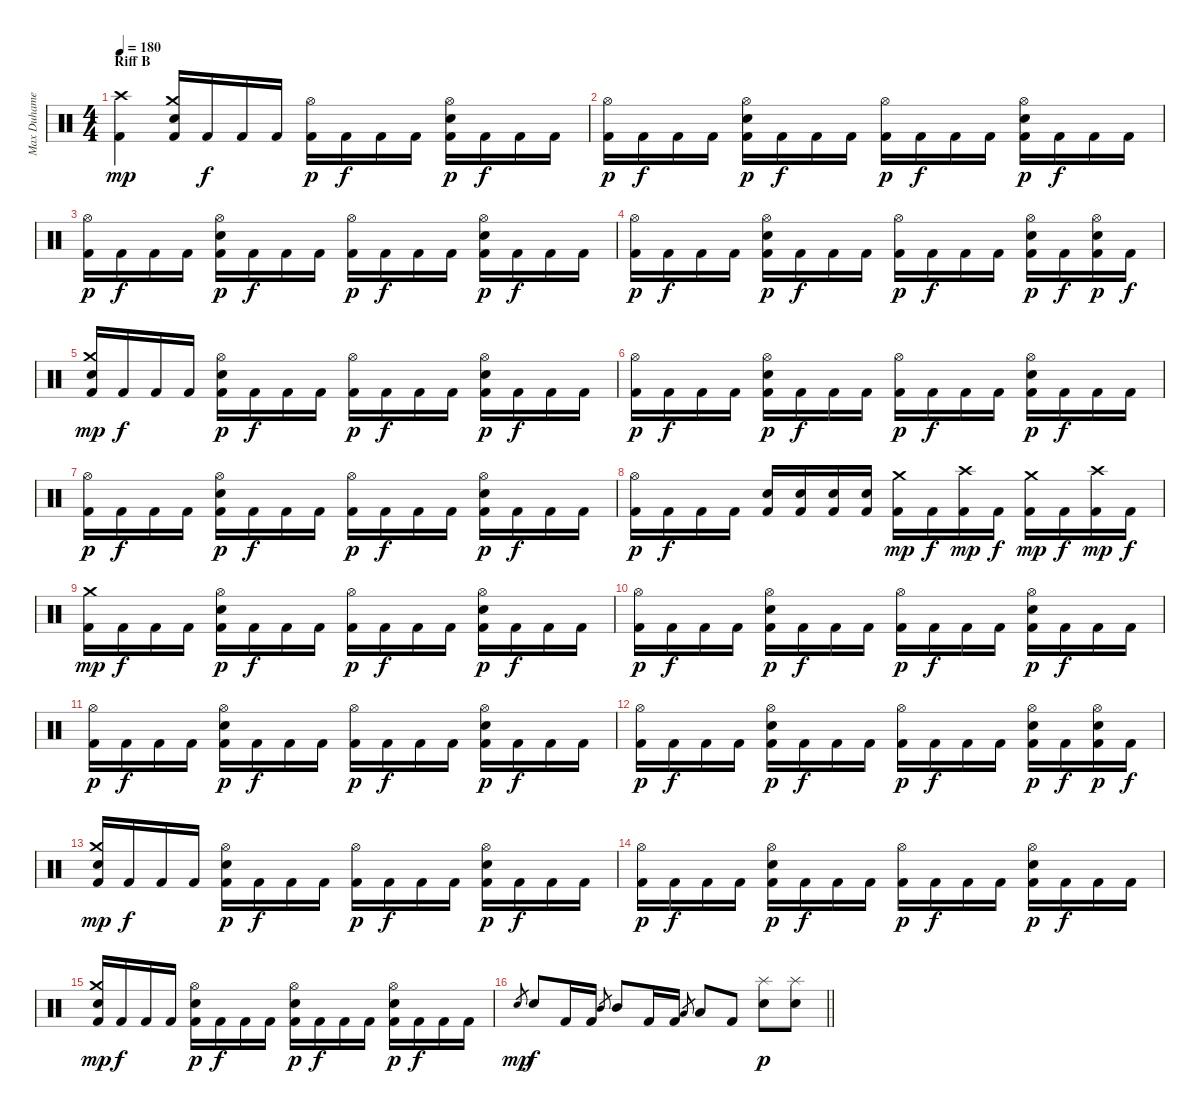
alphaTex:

\track ("Max Duhamel" "Max Duhame") {instrument percussion}
\staff {score}
\articulation defaults
\ts (4 4)
\section ("" "Riff B")
\tempo 180
\clef neutral
\ks c
("Crash high (hit)" "Kick (hit) 2").4{dy mp} ("Crash medium (hit)" "Electric Snare (hit)" "Kick (hit) 2").16 "Kick (hit) 2".16{dy f} "Kick (hit) 2".16 "Kick (hit) 2".16 ("Hi-Hat (open)" "Kick (hit) 2").16{dy p} "Kick (hit) 2".16{dy f} "Kick (hit) 2".16 "Kick (hit) 2".16 ("Hi-Hat (open)" "Electric Snare (hit)" "Kick (hit) 2").16{dy p} "Kick (hit) 2".16{dy f} "Kick (hit) 2".16 "Kick (hit) 2".16 |
("Hi-Hat (open)" "Kick (hit) 2").16{dy p} "Kick (hit) 2".16{dy f} "Kick (hit) 2".16 "Kick (hit) 2".16 ("Hi-Hat (open)" "Electric Snare (hit)" "Kick (hit) 2").16{dy p} "Kick (hit) 2".16{dy f} "Kick (hit) 2".16 "Kick (hit) 2".16 ("Hi-Hat (open)" "Kick (hit) 2").16{dy p} "Kick (hit) 2".16{dy f} "Kick (hit) 2".16 "Kick (hit) 2".16 ("Hi-Hat (open)" "Electric Snare (hit)" "Kick (hit) 2").16{dy p} "Kick (hit) 2".16{dy f} "Kick (hit) 2".16 "Kick (hit) 2".16 |
("Hi-Hat (open)" "Kick (hit) 2").16{dy p} "Kick (hit) 2".16{dy f} "Kick (hit) 2".16 "Kick (hit) 2".16 ("Hi-Hat (open)" "Electric Snare (hit)" "Kick (hit) 2").16{dy p} "Kick (hit) 2".16{dy f} "Kick (hit) 2".16 "Kick (hit) 2".16 ("Hi-Hat (open)" "Kick (hit) 2").16{dy p} "Kick (hit) 2".16{dy f} "Kick (hit) 2".16 "Kick (hit) 2".16 ("Hi-Hat (open)" "Electric Snare (hit)" "Kick (hit) 2").16{dy p} "Kick (hit) 2".16{dy f} "Kick (hit) 2".16 "Kick (hit) 2".16 |
("Hi-Hat (open)" "Kick (hit) 2").16{dy p} "Kick (hit) 2".16{dy f} "Kick (hit) 2".16 "Kick (hit) 2".16 ("Hi-Hat (open)" "Electric Snare (hit)" "Kick (hit) 2").16{dy p} "Kick (hit) 2".16{dy f} "Kick (hit) 2".16 "Kick (hit) 2".16 ("Hi-Hat (open)" "Kick (hit) 2").16{dy p} "Kick (hit) 2".16{dy f} "Kick (hit) 2".16 "Kick (hit) 2".16 ("Hi-Hat (open)" "Electric Snare (hit)" "Kick (hit) 2").16{dy p} "Kick (hit) 2".16{dy f} ("Hi-Hat (open)" "Electric Snare (hit)" "Kick (hit) 2").16{dy p} "Kick (hit) 2".16{dy f} |
("Crash medium (hit)" "Electric Snare (hit)" "Kick (hit) 2").16{dy mp} "Kick (hit) 2".16{dy f} "Kick (hit) 2".16 "Kick (hit) 2".16 ("Hi-Hat (open)" "Electric Snare (hit)" "Kick (hit) 2").16{dy p} "Kick (hit) 2".16{dy f} "Kick (hit) 2".16 "Kick (hit) 2".16 ("Hi-Hat (open)" "Kick (hit) 2").16{dy p} "Kick (hit) 2".16{dy f} "Kick (hit) 2".16 "Kick (hit) 2".16 ("Hi-Hat (open)" "Electric Snare (hit)" "Kick (hit) 2").16{dy p} "Kick (hit) 2".16{dy f} "Kick (hit) 2".16 "Kick (hit) 2".16 |
("Hi-Hat (open)" "Kick (hit) 2").16{dy p} "Kick (hit) 2".16{dy f} "Kick (hit) 2".16 "Kick (hit) 2".16 ("Hi-Hat (open)" "Electric Snare (hit)" "Kick (hit) 2").16{dy p} "Kick (hit) 2".16{dy f} "Kick (hit) 2".16 "Kick (hit) 2".16 ("Hi-Hat (open)" "Kick (hit) 2").16{dy p} "Kick (hit) 2".16{dy f} "Kick (hit) 2".16 "Kick (hit) 2".16 ("Hi-Hat (open)" "Electric Snare (hit)" "Kick (hit) 2").16{dy p} "Kick (hit) 2".16{dy f} "Kick (hit) 2".16 "Kick (hit) 2".16 |
("Hi-Hat (open)" "Kick (hit) 2").16{dy p} "Kick (hit) 2".16{dy f} "Kick (hit) 2".16 "Kick (hit) 2".16 ("Hi-Hat (open)" "Electric Snare (hit)" "Kick (hit) 2").16{dy p} "Kick (hit) 2".16{dy f} "Kick (hit) 2".16 "Kick (hit) 2".16 ("Hi-Hat (open)" "Kick (hit) 2").16{dy p} "Kick (hit) 2".16{dy f} "Kick (hit) 2".16 "Kick (hit) 2".16 ("Hi-Hat (open)" "Electric Snare (hit)" "Kick (hit) 2").16{dy p} "Kick (hit) 2".16{dy f} "Kick (hit) 2".16 "Kick (hit) 2".16 |
("Hi-Hat (open)" "Kick (hit) 2").16{dy p} "Kick (hit) 2".16{dy f} "Kick (hit) 2".16 "Kick (hit) 2".16 ("Electric Snare (hit)" "Kick (hit) 2").16 ("Electric Snare (hit)" "Kick (hit) 2").16 ("Electric Snare (hit)" "Kick (hit) 2").16 ("Electric Snare (hit)" "Kick (hit) 2").16 ("Crash medium (hit)" "Kick (hit) 2").16{dy mp} "Kick (hit) 2".16{dy f} ("Crash high (hit)" "Kick (hit) 2").16{dy mp} "Kick (hit) 2".16{dy f} ("Crash medium (hit)" "Kick (hit) 2").16{dy mp} "Kick (hit) 2".16{dy f} ("Crash high (hit)" "Kick (hit) 2").16{dy mp} "Kick (hit) 2".16{dy f} |
("Crash medium (hit)" "Kick (hit) 2").16{dy mp} "Kick (hit) 2".16{dy f} "Kick (hit) 2".16 "Kick (hit) 2".16 ("Hi-Hat (open)" "Electric Snare (hit)" "Kick (hit) 2").16{dy p} "Kick (hit) 2".16{dy f} "Kick (hit) 2".16 "Kick (hit) 2".16 ("Hi-Hat (open)" "Kick (hit) 2").16{dy p} "Kick (hit) 2".16{dy f} "Kick (hit) 2".16 "Kick (hit) 2".16 ("Hi-Hat (open)" "Electric Snare (hit)" "Kick (hit) 2").16{dy p} "Kick (hit) 2".16{dy f} "Kick (hit) 2".16 "Kick (hit) 2".16 |
("Hi-Hat (open)" "Kick (hit) 2").16{dy p} "Kick (hit) 2".16{dy f} "Kick (hit) 2".16 "Kick (hit) 2".16 ("Hi-Hat (open)" "Electric Snare (hit)" "Kick (hit) 2").16{dy p} "Kick (hit) 2".16{dy f} "Kick (hit) 2".16 "Kick (hit) 2".16 ("Hi-Hat (open)" "Kick (hit) 2").16{dy p} "Kick (hit) 2".16{dy f} "Kick (hit) 2".16 "Kick (hit) 2".16 ("Hi-Hat (open)" "Electric Snare (hit)" "Kick (hit) 2").16{dy p} "Kick (hit) 2".16{dy f} "Kick (hit) 2".16 "Kick (hit) 2".16 |
("Hi-Hat (open)" "Kick (hit) 2").16{dy p} "Kick (hit) 2".16{dy f} "Kick (hit) 2".16 "Kick (hit) 2".16 ("Hi-Hat (open)" "Electric Snare (hit)" "Kick (hit) 2").16{dy p} "Kick (hit) 2".16{dy f} "Kick (hit) 2".16 "Kick (hit) 2".16 ("Hi-Hat (open)" "Kick (hit) 2").16{dy p} "Kick (hit) 2".16{dy f} "Kick (hit) 2".16 "Kick (hit) 2".16 ("Hi-Hat (open)" "Electric Snare (hit)" "Kick (hit) 2").16{dy p} "Kick (hit) 2".16{dy f} "Kick (hit) 2".16 "Kick (hit) 2".16 |
("Hi-Hat (open)" "Kick (hit) 2").16{dy p} "Kick (hit) 2".16{dy f} "Kick (hit) 2".16 "Kick (hit) 2".16 ("Hi-Hat (open)" "Electric Snare (hit)" "Kick (hit) 2").16{dy p} "Kick (hit) 2".16{dy f} "Kick (hit) 2".16 "Kick (hit) 2".16 ("Hi-Hat (open)" "Kick (hit) 2").16{dy p} "Kick (hit) 2".16{dy f} "Kick (hit) 2".16 "Kick (hit) 2".16 ("Hi-Hat (open)" "Electric Snare (hit)" "Kick (hit) 2").16{dy p} "Kick (hit) 2".16{dy f} ("Hi-Hat (open)" "Electric Snare (hit)" "Kick (hit) 2").16{dy p} "Kick (hit) 2".16{dy f} |
("Crash medium (hit)" "Electric Snare (hit)" "Kick (hit) 2").16{dy mp} "Kick (hit) 2".16{dy f} "Kick (hit) 2".16 "Kick (hit) 2".16 ("Hi-Hat (open)" "Electric Snare (hit)" "Kick (hit) 2").16{dy p} "Kick (hit) 2".16{dy f} "Kick (hit) 2".16 "Kick (hit) 2".16 ("Hi-Hat (open)" "Kick (hit) 2").16{dy p} "Kick (hit) 2".16{dy f} "Kick (hit) 2".16 "Kick (hit) 2".16 ("Hi-Hat (open)" "Electric Snare (hit)" "Kick (hit) 2").16{dy p} "Kick (hit) 2".16{dy f} "Kick (hit) 2".16 "Kick (hit) 2".16 |
("Hi-Hat (open)" "Kick (hit) 2").16{dy p} "Kick (hit) 2".16{dy f} "Kick (hit) 2".16 "Kick (hit) 2".16 ("Hi-Hat (open)" "Electric Snare (hit)" "Kick (hit) 2").16{dy p} "Kick (hit) 2".16{dy f} "Kick (hit) 2".16 "Kick (hit) 2".16 ("Hi-Hat (open)" "Kick (hit) 2").16{dy p} "Kick (hit) 2".16{dy f} "Kick (hit) 2".16 "Kick (hit) 2".16 ("Hi-Hat (open)" "Electric Snare (hit)" "Kick (hit) 2").16{dy p} "Kick (hit) 2".16{dy f} "Kick (hit) 2".16 "Kick (hit) 2".16 |
("Crash medium (hit)" "Electric Snare (hit)" "Kick (hit) 2").16{dy mp} "Kick (hit) 2".16{dy f} "Kick (hit) 2".16 "Kick (hit) 2".16 ("Hi-Hat (open)" "Electric Snare (hit)" "Kick (hit) 2").16{dy p} "Kick (hit) 2".16{dy f} "Kick (hit) 2".16 "Kick (hit) 2".16 ("Hi-Hat (open)" "Electric Snare (hit)" "Kick (hit) 2").16{dy p} "Kick (hit) 2".16{dy f} "Kick (hit) 2".16 "Kick (hit) 2".16 ("Hi-Hat (open)" "Electric Snare (hit)" "Kick (hit) 2").16{dy p} "Kick (hit) 2".16{dy f} "Kick (hit) 2".16 "Kick (hit) 2".16 |
\barLineRight lightlight "Electric Snare (hit)".8{gr dy mp} "Electric Snare (hit)".8{dy f} "Kick (hit) 2".16 "Kick (hit) 2".16 "Mid Tom (hit)".8{gr} "Mid Tom (hit)".8 "Kick (hit) 2".16 "Kick (hit) 2".16 "Low Tom (hit)".8{gr} "Low Tom (hit)".8 "Kick (hit) 2".8
("Splash (hit)" "Electric Snare (hit)").8{dy p} ("Splash (hit)" "Electric Snare (hit)").8
